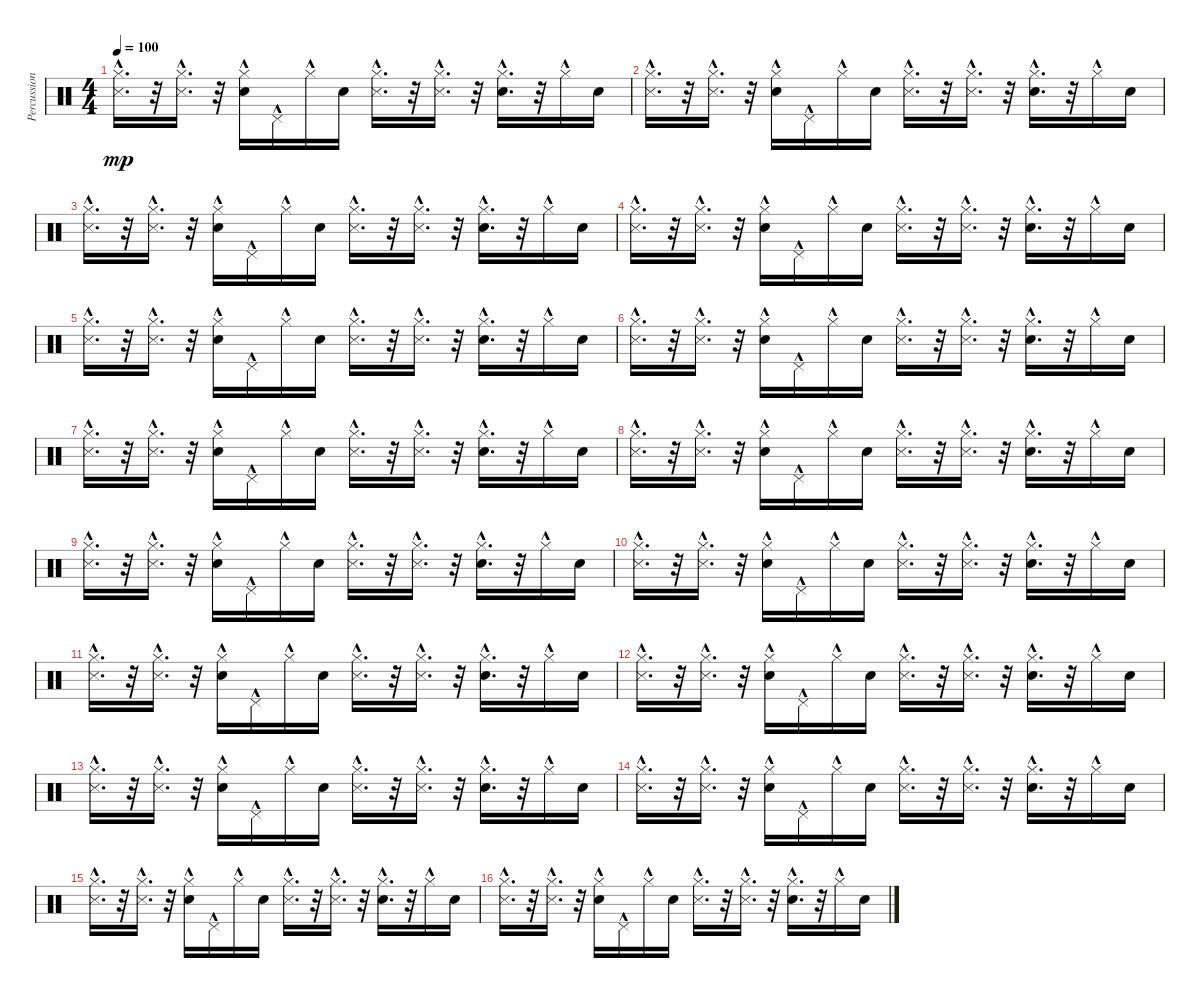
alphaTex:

\track ("Percussion" "Percussion") {instrument percussion}
\staff {score}
\articulation defaults
\ts (4 4)
\tempo 100
\clef neutral
\ks c
("Hi-Hat (closed)"{hac} "Metronome (hit)"{hac}).16{d dy mp} r.32 ("Hi-Hat (closed)"{hac} "Metronome (hit)").16{d} r.32 ("Hi-Hat (closed)"{hac} "Metronome (bell)").16 "Pedal Hi-Hat (hit)"{hac}.16 "Hi-Hat (closed)"{hac}.16 "Metronome (bell)".16 ("Metronome (hit)"{hac} "Hi-Hat (closed)"{hac}).16{d} r.32 ("Metronome (hit)" "Hi-Hat (closed)"{hac}).16{d} r.32 ("Metronome (bell)" "Hi-Hat (closed)"{hac}).16{d} r.32 "Hi-Hat (closed)"{hac}.16 "Metronome (bell)".16 |
("Hi-Hat (closed)"{hac} "Metronome (hit)"{hac}).16{d} r.32 ("Hi-Hat (closed)"{hac} "Metronome (hit)").16{d} r.32 ("Hi-Hat (closed)"{hac} "Metronome (bell)").16 "Pedal Hi-Hat (hit)"{hac}.16 "Hi-Hat (closed)"{hac}.16 "Metronome (bell)".16 ("Metronome (hit)"{hac} "Hi-Hat (closed)"{hac}).16{d} r.32 ("Metronome (hit)" "Hi-Hat (closed)"{hac}).16{d} r.32 ("Metronome (bell)" "Hi-Hat (closed)"{hac}).16{d} r.32 "Hi-Hat (closed)"{hac}.16 "Metronome (bell)".16 |
("Hi-Hat (closed)"{hac} "Metronome (hit)"{hac}).16{d} r.32 ("Hi-Hat (closed)"{hac} "Metronome (hit)").16{d} r.32 ("Hi-Hat (closed)"{hac} "Metronome (bell)").16 "Pedal Hi-Hat (hit)"{hac}.16 "Hi-Hat (closed)"{hac}.16 "Metronome (bell)".16 ("Metronome (hit)"{hac} "Hi-Hat (closed)"{hac}).16{d} r.32 ("Metronome (hit)" "Hi-Hat (closed)"{hac}).16{d} r.32 ("Metronome (bell)" "Hi-Hat (closed)"{hac}).16{d} r.32 "Hi-Hat (closed)"{hac}.16 "Metronome (bell)".16 |
("Hi-Hat (closed)"{hac} "Metronome (hit)"{hac}).16{d} r.32 ("Hi-Hat (closed)"{hac} "Metronome (hit)").16{d} r.32 ("Hi-Hat (closed)"{hac} "Metronome (bell)").16 "Pedal Hi-Hat (hit)"{hac}.16 "Hi-Hat (closed)"{hac}.16 "Metronome (bell)".16 ("Metronome (hit)"{hac} "Hi-Hat (closed)"{hac}).16{d} r.32 ("Metronome (hit)" "Hi-Hat (closed)"{hac}).16{d} r.32 ("Metronome (bell)" "Hi-Hat (closed)"{hac}).16{d} r.32 "Hi-Hat (closed)"{hac}.16 "Metronome (bell)".16 |
("Hi-Hat (closed)"{hac} "Metronome (hit)"{hac}).16{d} r.32 ("Hi-Hat (closed)"{hac} "Metronome (hit)").16{d} r.32 ("Hi-Hat (closed)"{hac} "Metronome (bell)").16 "Pedal Hi-Hat (hit)"{hac}.16 "Hi-Hat (closed)"{hac}.16 "Metronome (bell)".16 ("Metronome (hit)"{hac} "Hi-Hat (closed)"{hac}).16{d} r.32 ("Metronome (hit)" "Hi-Hat (closed)"{hac}).16{d} r.32 ("Metronome (bell)" "Hi-Hat (closed)"{hac}).16{d} r.32 "Hi-Hat (closed)"{hac}.16 "Metronome (bell)".16 |
("Hi-Hat (closed)"{hac} "Metronome (hit)"{hac}).16{d} r.32 ("Hi-Hat (closed)"{hac} "Metronome (hit)").16{d} r.32 ("Hi-Hat (closed)"{hac} "Metronome (bell)").16 "Pedal Hi-Hat (hit)"{hac}.16 "Hi-Hat (closed)"{hac}.16 "Metronome (bell)".16 ("Metronome (hit)"{hac} "Hi-Hat (closed)"{hac}).16{d} r.32 ("Metronome (hit)" "Hi-Hat (closed)"{hac}).16{d} r.32 ("Metronome (bell)" "Hi-Hat (closed)"{hac}).16{d} r.32 "Hi-Hat (closed)"{hac}.16 "Metronome (bell)".16 |
("Hi-Hat (closed)"{hac} "Metronome (hit)"{hac}).16{d} r.32 ("Hi-Hat (closed)"{hac} "Metronome (hit)").16{d} r.32 ("Hi-Hat (closed)"{hac} "Metronome (bell)").16 "Pedal Hi-Hat (hit)"{hac}.16 "Hi-Hat (closed)"{hac}.16 "Metronome (bell)".16 ("Metronome (hit)"{hac} "Hi-Hat (closed)"{hac}).16{d} r.32 ("Metronome (hit)" "Hi-Hat (closed)"{hac}).16{d} r.32 ("Metronome (bell)" "Hi-Hat (closed)"{hac}).16{d} r.32 "Hi-Hat (closed)"{hac}.16 "Metronome (bell)".16 |
("Hi-Hat (closed)"{hac} "Metronome (hit)"{hac}).16{d} r.32 ("Hi-Hat (closed)"{hac} "Metronome (hit)").16{d} r.32 ("Hi-Hat (closed)"{hac} "Metronome (bell)").16 "Pedal Hi-Hat (hit)"{hac}.16 "Hi-Hat (closed)"{hac}.16 "Metronome (bell)".16 ("Metronome (hit)"{hac} "Hi-Hat (closed)"{hac}).16{d} r.32 ("Metronome (hit)" "Hi-Hat (closed)"{hac}).16{d} r.32 ("Metronome (bell)" "Hi-Hat (closed)"{hac}).16{d} r.32 "Hi-Hat (closed)"{hac}.16 "Metronome (bell)".16 |
("Hi-Hat (closed)"{hac} "Metronome (hit)"{hac}).16{d} r.32 ("Hi-Hat (closed)"{hac} "Metronome (hit)").16{d} r.32 ("Hi-Hat (closed)"{hac} "Metronome (bell)").16 "Pedal Hi-Hat (hit)"{hac}.16 "Hi-Hat (closed)"{hac}.16 "Metronome (bell)".16 ("Metronome (hit)"{hac} "Hi-Hat (closed)"{hac}).16{d} r.32 ("Metronome (hit)" "Hi-Hat (closed)"{hac}).16{d} r.32 ("Metronome (bell)" "Hi-Hat (closed)"{hac}).16{d} r.32 "Hi-Hat (closed)"{hac}.16 "Metronome (bell)".16 |
("Hi-Hat (closed)"{hac} "Metronome (hit)"{hac}).16{d} r.32 ("Hi-Hat (closed)"{hac} "Metronome (hit)").16{d} r.32 ("Hi-Hat (closed)"{hac} "Metronome (bell)").16 "Pedal Hi-Hat (hit)"{hac}.16 "Hi-Hat (closed)"{hac}.16 "Metronome (bell)".16 ("Metronome (hit)"{hac} "Hi-Hat (closed)"{hac}).16{d} r.32 ("Metronome (hit)" "Hi-Hat (closed)"{hac}).16{d} r.32 ("Metronome (bell)" "Hi-Hat (closed)"{hac}).16{d} r.32 "Hi-Hat (closed)"{hac}.16 "Metronome (bell)".16 |
("Hi-Hat (closed)"{hac} "Metronome (hit)"{hac}).16{d} r.32 ("Hi-Hat (closed)"{hac} "Metronome (hit)").16{d} r.32 ("Hi-Hat (closed)"{hac} "Metronome (bell)").16 "Pedal Hi-Hat (hit)"{hac}.16 "Hi-Hat (closed)"{hac}.16 "Metronome (bell)".16 ("Metronome (hit)"{hac} "Hi-Hat (closed)"{hac}).16{d} r.32 ("Metronome (hit)" "Hi-Hat (closed)"{hac}).16{d} r.32 ("Metronome (bell)" "Hi-Hat (closed)"{hac}).16{d} r.32 "Hi-Hat (closed)"{hac}.16 "Metronome (bell)".16 |
("Hi-Hat (closed)"{hac} "Metronome (hit)"{hac}).16{d} r.32 ("Hi-Hat (closed)"{hac} "Metronome (hit)").16{d} r.32 ("Hi-Hat (closed)"{hac} "Metronome (bell)").16 "Pedal Hi-Hat (hit)"{hac}.16 "Hi-Hat (closed)"{hac}.16 "Metronome (bell)".16 ("Metronome (hit)"{hac} "Hi-Hat (closed)"{hac}).16{d} r.32 ("Metronome (hit)" "Hi-Hat (closed)"{hac}).16{d} r.32 ("Metronome (bell)" "Hi-Hat (closed)"{hac}).16{d} r.32 "Hi-Hat (closed)"{hac}.16 "Metronome (bell)".16 |
("Hi-Hat (closed)"{hac} "Metronome (hit)"{hac}).16{d} r.32 ("Hi-Hat (closed)"{hac} "Metronome (hit)").16{d} r.32 ("Hi-Hat (closed)"{hac} "Metronome (bell)").16 "Pedal Hi-Hat (hit)"{hac}.16 "Hi-Hat (closed)"{hac}.16 "Metronome (bell)".16 ("Metronome (hit)"{hac} "Hi-Hat (closed)"{hac}).16{d} r.32 ("Metronome (hit)" "Hi-Hat (closed)"{hac}).16{d} r.32 ("Metronome (bell)" "Hi-Hat (closed)"{hac}).16{d} r.32 "Hi-Hat (closed)"{hac}.16 "Metronome (bell)".16 |
("Hi-Hat (closed)"{hac} "Metronome (hit)"{hac}).16{d} r.32 ("Hi-Hat (closed)"{hac} "Metronome (hit)").16{d} r.32 ("Hi-Hat (closed)"{hac} "Metronome (bell)").16 "Pedal Hi-Hat (hit)"{hac}.16 "Hi-Hat (closed)"{hac}.16 "Metronome (bell)".16 ("Metronome (hit)"{hac} "Hi-Hat (closed)"{hac}).16{d} r.32 ("Metronome (hit)" "Hi-Hat (closed)"{hac}).16{d} r.32 ("Metronome (bell)" "Hi-Hat (closed)"{hac}).16{d} r.32 "Hi-Hat (closed)"{hac}.16 "Metronome (bell)".16 |
("Hi-Hat (closed)"{hac} "Metronome (hit)"{hac}).16{d} r.32 ("Hi-Hat (closed)"{hac} "Metronome (hit)").16{d} r.32 ("Hi-Hat (closed)"{hac} "Metronome (bell)").16 "Pedal Hi-Hat (hit)"{hac}.16 "Hi-Hat (closed)"{hac}.16 "Metronome (bell)".16 ("Metronome (hit)"{hac} "Hi-Hat (closed)"{hac}).16{d} r.32 ("Metronome (hit)" "Hi-Hat (closed)"{hac}).16{d} r.32 ("Metronome (bell)" "Hi-Hat (closed)"{hac}).16{d} r.32 "Hi-Hat (closed)"{hac}.16 "Metronome (bell)".16 |
("Hi-Hat (closed)"{hac} "Metronome (hit)"{hac}).16{d} r.32 ("Hi-Hat (closed)"{hac} "Metronome (hit)").16{d} r.32 ("Hi-Hat (closed)"{hac} "Metronome (bell)").16 "Pedal Hi-Hat (hit)"{hac}.16 "Hi-Hat (closed)"{hac}.16 "Metronome (bell)".16 ("Metronome (hit)"{hac} "Hi-Hat (closed)"{hac}).16{d} r.32 ("Metronome (hit)" "Hi-Hat (closed)"{hac}).16{d} r.32 ("Metronome (bell)" "Hi-Hat (closed)"{hac}).16{d} r.32 "Hi-Hat (closed)"{hac}.16 "Metronome (bell)".16
